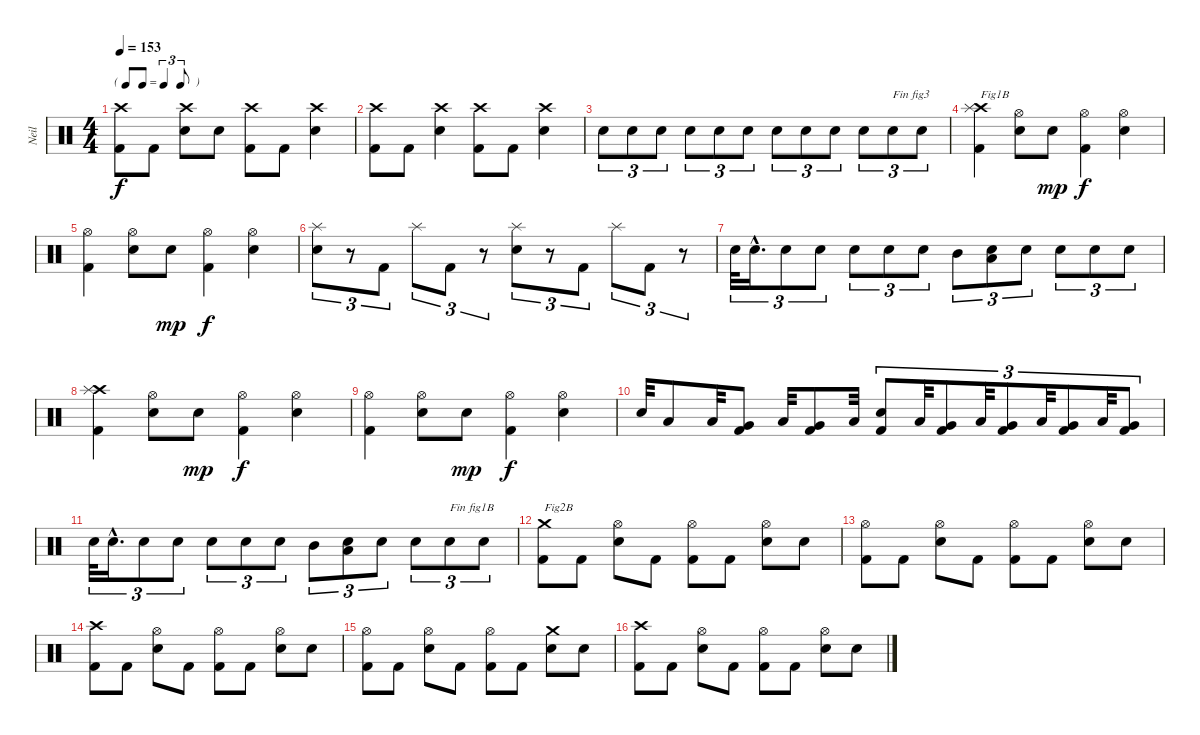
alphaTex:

\track ("Neil" "Neil") {instrument percussion}
\staff {score}
\articulation defaults
\ts (4 4)
\tf triplet8th
\tempo 153
\clef neutral
\ks c
("Kick (hit) 2" "Crash high (hit)").8{dy f} "Kick (hit) 2".8 ("Electric Snare (hit)" "Crash high (hit)").8 "Electric Snare (hit)".8 ("Kick (hit) 2" "Crash high (hit)").8 "Kick (hit) 2".8 ("Electric Snare (hit)" "Crash high (hit)").4 |
("Kick (hit) 2" "Crash high (hit)").8 "Kick (hit) 2".8 ("Electric Snare (hit)" "Crash high (hit)").4 ("Kick (hit) 2" "Crash high (hit)").8 "Kick (hit) 2".8 ("Electric Snare (hit)" "Crash high (hit)").4 |
"Electric Snare (hit)".8{tu (3 2)} "Electric Snare (hit)".8{tu (3 2)} "Electric Snare (hit)".8{tu (3 2)} "Electric Snare (hit)".8{tu (3 2)} "Electric Snare (hit)".8{tu (3 2)} "Electric Snare (hit)".8{tu (3 2)} "Electric Snare (hit)".8{tu (3 2)} "Electric Snare (hit)".8{tu (3 2)} "Electric Snare (hit)".8{tu (3 2)} "Electric Snare (hit)".8{tu (3 2)} "Electric Snare (hit)".8{tu (3 2) txt "Fin fig3"} "Electric Snare (hit)".8{tu (3 2)} |
("Kick (hit) 2" "Crash high (hit)" "Splash (hit)").4{txt "Fig1B"} ("Electric Snare (hit)" "Hi-Hat (open)").8 "Electric Snare (hit)".8{dy mp} ("Kick (hit) 2" "Hi-Hat (open)").4{dy f} ("Electric Snare (hit)" "Hi-Hat (open)").4 |
("Kick (hit) 2" "Hi-Hat (open)").4 ("Electric Snare (hit)" "Hi-Hat (open)").8 "Electric Snare (hit)".8{dy mp} ("Kick (hit) 2" "Hi-Hat (open)").4{dy f} ("Electric Snare (hit)" "Hi-Hat (open)").4 |
("Electric Snare (hit)" "Splash (hit)").8{tu (3 2)} r.8{tu (3 2)} "Kick (hit) 2".8{tu (3 2)} "Splash (hit)".8{tu (3 2)} "Kick (hit) 2".8{tu (3 2)} r.8{tu (3 2)} ("Electric Snare (hit)" "Splash (hit)").8{tu (3 2)} r.8{tu (3 2)} "Kick (hit) 2".8{tu (3 2)} "Splash (hit)".8{tu (3 2)} "Kick (hit) 2".8{tu (3 2)} r.8{tu (3 2)} |
"Electric Snare (hit)".32{tu (3 2)} "Electric Snare (hit)"{hac}.16{d tu (3 2)} "Electric Snare (hit)".8{tu (3 2)} "Electric Snare (hit)".8{tu (3 2)} "Electric Snare (hit)".8{tu (3 2)} "Electric Snare (hit)".8{tu (3 2)} "Electric Snare (hit)".8{tu (3 2)} "Mid Tom (hit)".8{tu (3 2)} ("Electric Snare (hit)" "Low Tom (hit)").8{tu (3 2)} "Electric Snare (hit)".8{tu (3 2)} "Electric Snare (hit)".8{tu (3 2)} "Electric Snare (hit)".8{tu (3 2)} "Electric Snare (hit)".8{tu (3 2)} |
("Kick (hit) 2" "Crash high (hit)" "Splash (hit)").4 ("Electric Snare (hit)" "Hi-Hat (open)").8 "Electric Snare (hit)".8{dy mp} ("Kick (hit) 2" "Hi-Hat (open)").4{dy f} ("Electric Snare (hit)" "Hi-Hat (open)").4 |
("Kick (hit) 2" "Hi-Hat (open)").4 ("Electric Snare (hit)" "Hi-Hat (open)").8 "Electric Snare (hit)".8{dy mp} ("Kick (hit) 2" "Hi-Hat (open)").4{dy f} ("Electric Snare (hit)" "Hi-Hat (open)").4 |
"Electric Snare (hit)".32 "Low Tom (hit)".8 "Low Floor Tom (hit)".32 ("Kick (hit) 2" "Very Low Tom (hit)").8 "Low Floor Tom (hit)".32 ("Kick (hit) 2" "Very Low Tom (hit)").8 "Low Floor Tom (hit)".32 ("Kick (hit) 2" "Electric Snare (hit)").8{tu (3 2)} "Low Tom (hit)".32{tu (3 2)} ("Kick (hit) 2" "Very Low Tom (hit)").8{tu (3 2)} "Low Tom (hit)".32{tu (3 2)} ("Kick (hit) 2" "Very Low Tom (hit)").8{tu (3 2)} "Low Tom (hit)".32{tu (3 2)} ("Kick (hit) 2" "Very Low Tom (hit)").8{tu (3 2)} "Low Tom (hit)".32{tu (3 2)} ("Kick (hit) 2" "Very Low Tom (hit)").8{tu (3 2)} |
"Electric Snare (hit)".32{tu (3 2)} "Electric Snare (hit)"{hac}.16{d tu (3 2)} "Electric Snare (hit)".8{tu (3 2)} "Electric Snare (hit)".8{tu (3 2)} "Electric Snare (hit)".8{tu (3 2)} "Electric Snare (hit)".8{tu (3 2)} "Electric Snare (hit)".8{tu (3 2)} "Mid Tom (hit)".8{tu (3 2)} ("Electric Snare (hit)" "Low Tom (hit)").8{tu (3 2)} "Electric Snare (hit)".8{tu (3 2)} "Electric Snare (hit)".8{tu (3 2)} "Electric Snare (hit)".8{tu (3 2) txt "Fin fig1B"} "Electric Snare (hit)".8{tu (3 2)} |
("Kick (hit) 2" "Crash medium (hit)").8{txt "Fig2B"} "Kick (hit) 2".8 ("Electric Snare (hit)" "Hi-Hat (open)").8 "Kick (hit) 2".8 ("Kick (hit) 2" "Hi-Hat (open)").8 "Kick (hit) 2".8 ("Electric Snare (hit)" "Hi-Hat (open)").8 "Electric Snare (hit)".8 |
("Kick (hit) 2" "Hi-Hat (open)").8 "Kick (hit) 2".8 ("Electric Snare (hit)" "Hi-Hat (open)").8 "Kick (hit) 2".8 ("Kick (hit) 2" "Hi-Hat (open)").8 "Kick (hit) 2".8 ("Electric Snare (hit)" "Hi-Hat (open)").8 "Electric Snare (hit)".8 |
("Kick (hit) 2" "Crash high (hit)").8 "Kick (hit) 2".8 ("Electric Snare (hit)" "Hi-Hat (open)").8 "Kick (hit) 2".8 ("Kick (hit) 2" "Hi-Hat (open)").8 "Kick (hit) 2".8 ("Electric Snare (hit)" "Hi-Hat (open)").8 "Electric Snare (hit)".8 |
("Kick (hit) 2" "Hi-Hat (open)").8 "Kick (hit) 2".8 ("Electric Snare (hit)" "Hi-Hat (open)").8 "Kick (hit) 2".8 ("Kick (hit) 2" "Hi-Hat (open)").8 "Kick (hit) 2".8 ("Electric Snare (hit)" "Crash medium (hit)").8 "Electric Snare (hit)".8 |
("Kick (hit) 2" "Crash high (hit)").8 "Kick (hit) 2".8 ("Electric Snare (hit)" "Hi-Hat (open)").8 "Kick (hit) 2".8 ("Kick (hit) 2" "Hi-Hat (open)").8 "Kick (hit) 2".8 ("Electric Snare (hit)" "Hi-Hat (open)").8 "Electric Snare (hit)".8
